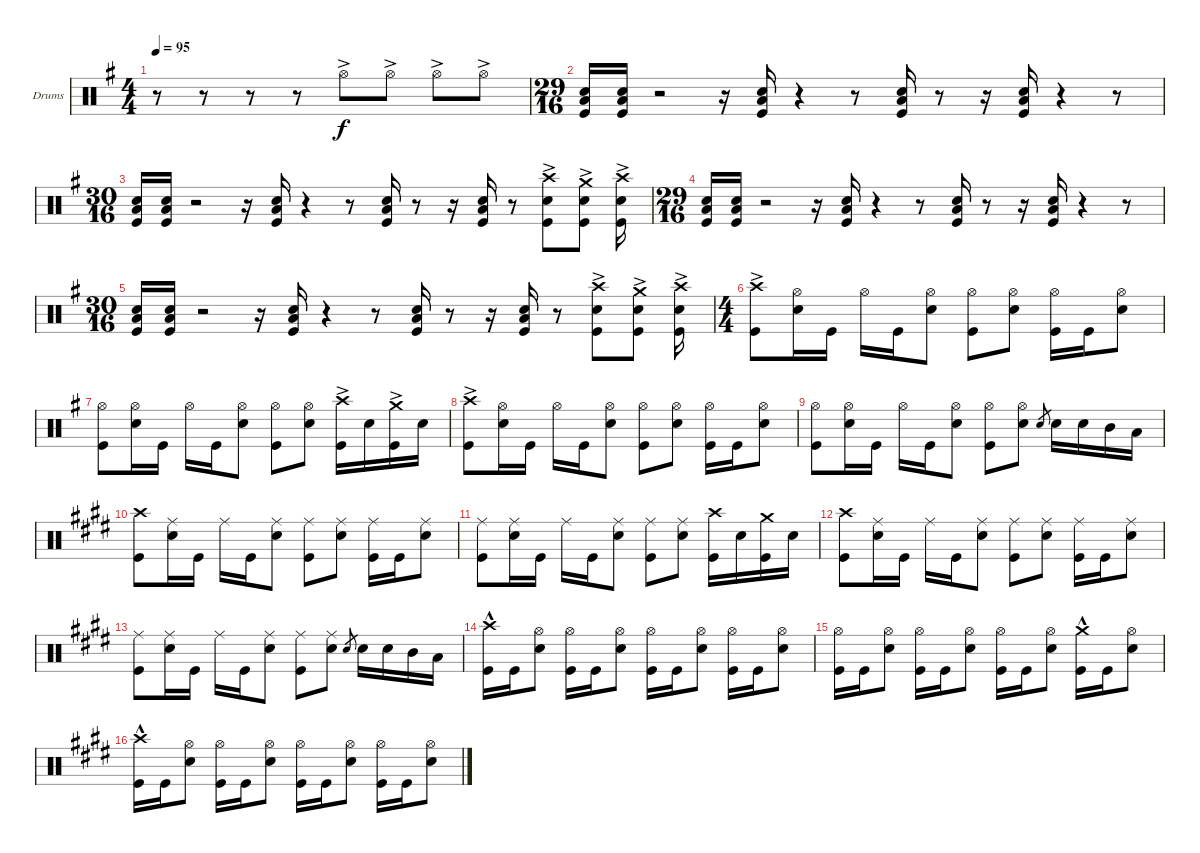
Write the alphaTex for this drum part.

\bracketExtendMode groupsimilarinstruments
\firstSystemTrackNameOrientation horizontal
\otherSystemsTrackNameOrientation horizontal
\track ("Drumkit" "Drums") {instrument percussion}
\staff {score}
\articulation defaults
\ts (4 4)
\tempo 95
\clef neutral
\ks eminor
r.8{dy f} r.8 r.8 r.8 "Hi-Hat (open)"{ac}.8 "Hi-Hat (open)"{ac}.8 "Hi-Hat (open)"{ac}.8 "Hi-Hat (open)"{ac}.8 |
\ts (29 16)
("Kick (hit)" "Low Tom (hit)" "Snare (hit) 2").16 ("Kick (hit)" "Low Tom (hit)" "Snare (hit) 2").16 r.2 r.16 ("Kick (hit)" "Low Tom (hit)" "Snare (hit) 2").16 r.4 r.8 ("Kick (hit)" "Low Tom (hit)" "Snare (hit) 2").16 r.8 r.16 ("Kick (hit)" "Low Tom (hit)" "Snare (hit) 2").16 r.4 r.8 |
\ts (30 16)
("Kick (hit)" "Low Tom (hit)" "Snare (hit) 2").16 ("Kick (hit)" "Low Tom (hit)" "Snare (hit) 2").16 r.2 r.16 ("Kick (hit)" "Low Tom (hit)" "Snare (hit) 2").16 r.4 r.8 ("Kick (hit)" "Low Tom (hit)" "Snare (hit) 2").16 r.8 r.16 ("Kick (hit)" "Low Tom (hit)" "Snare (hit) 2").16 r.8 ("Kick (hit)" "Snare (hit) 2" "Crash high (hit)"{ac}).8 ("Snare (hit) 2" "Kick (hit)" "Crash medium (hit)"{ac}).8 ("Crash high (hit)"{ac} "Snare (hit) 2" "Kick (hit)").16 |
\ts (29 16)
("Kick (hit)" "Low Tom (hit)" "Snare (hit) 2").16 ("Kick (hit)" "Low Tom (hit)" "Snare (hit) 2").16 r.2 r.16 ("Kick (hit)" "Low Tom (hit)" "Snare (hit) 2").16 r.4 r.8 ("Kick (hit)" "Low Tom (hit)" "Snare (hit) 2").16 r.8 r.16 ("Kick (hit)" "Low Tom (hit)" "Snare (hit) 2").16 r.4 r.8 |
\ts (30 16)
("Kick (hit)" "Low Tom (hit)" "Snare (hit) 2").16 ("Kick (hit)" "Low Tom (hit)" "Snare (hit) 2").16 r.2 r.16 ("Kick (hit)" "Low Tom (hit)" "Snare (hit) 2").16 r.4 r.8 ("Kick (hit)" "Low Tom (hit)" "Snare (hit) 2").16 r.8 r.16 ("Kick (hit)" "Low Tom (hit)" "Snare (hit) 2").16 r.8 ("Kick (hit)" "Snare (hit) 2" "Crash high (hit)"{ac}).8 ("Snare (hit) 2" "Kick (hit)" "Crash medium (hit)"{ac}).8 ("Crash high (hit)"{ac} "Snare (hit) 2" "Kick (hit)").16 |
\ts (4 4)
("Crash high (hit)"{ac} "Kick (hit)").8 ("Snare (hit) 2" "Hi-Hat (open)").16 "Kick (hit)".16 "Hi-Hat (open)".16 "Kick (hit)".16 ("Snare (hit) 2" "Hi-Hat (open)").8 ("Kick (hit)" "Hi-Hat (open)").8 ("Snare (hit) 2" "Hi-Hat (open)").8 ("Kick (hit)" "Hi-Hat (open)").16 "Kick (hit)".16 ("Snare (hit) 2" "Hi-Hat (open)").8 |
("Kick (hit)" "Hi-Hat (open)").8 ("Snare (hit) 2" "Hi-Hat (open)").16 "Kick (hit)".16 "Hi-Hat (open)".16 "Kick (hit)".16 ("Snare (hit) 2" "Hi-Hat (open)").8 ("Kick (hit)" "Hi-Hat (open)").8 ("Snare (hit) 2" "Hi-Hat (open)").8 ("Crash high (hit)"{ac} "Kick (hit)").16 "Snare (hit) 2".16 ("Crash medium (hit)"{ac} "Kick (hit)").16 "Snare (hit) 2".16 |
("Crash high (hit)"{ac} "Kick (hit)").8 ("Snare (hit) 2" "Hi-Hat (open)").16 "Kick (hit)".16 "Hi-Hat (open)".16 "Kick (hit)".16 ("Snare (hit) 2" "Hi-Hat (open)").8 ("Kick (hit)" "Hi-Hat (open)").8 ("Snare (hit) 2" "Hi-Hat (open)").8 ("Kick (hit)" "Hi-Hat (open)").16 "Kick (hit)".16 ("Snare (hit) 2" "Hi-Hat (open)").8 |
("Kick (hit)" "Hi-Hat (open)").8 ("Snare (hit) 2" "Hi-Hat (open)").16 "Kick (hit)".16 "Hi-Hat (open)".16 "Kick (hit)".16 ("Snare (hit) 2" "Hi-Hat (open)").8 ("Kick (hit)" "Hi-Hat (open)").8 ("Snare (hit) 2" "Hi-Hat (open)").8 "Snare (hit) 2".8{gr} "Snare (hit) 2".16 "Snare (hit) 2".16 "Mid Tom (hit)".16 "Low Tom (hit)".16 |
\ks c#minor
("Crash high (hit)" "Kick (hit)").8 ("Snare (hit) 2" "Ride (middle)").16 "Kick (hit)".16 "Ride (middle)".16 "Kick (hit)".16 ("Snare (hit) 2" "Ride (middle)").8 ("Kick (hit)" "Ride (middle)").8 ("Snare (hit) 2" "Ride (middle)").8 ("Kick (hit)" "Ride (middle)").16 "Kick (hit)".16 ("Snare (hit) 2" "Ride (middle)").8 |
("Kick (hit)" "Ride (middle)").8 ("Snare (hit) 2" "Ride (middle)").16 "Kick (hit)".16 "Ride (middle)".16 "Kick (hit)".16 ("Snare (hit) 2" "Ride (middle)").8 ("Kick (hit)" "Ride (middle)").8 ("Snare (hit) 2" "Ride (middle)").8 ("Crash high (hit)" "Kick (hit)").16 "Snare (hit) 2".16 ("Crash medium (hit)" "Kick (hit)").16 "Snare (hit) 2".16 |
("Crash high (hit)" "Kick (hit)").8 ("Snare (hit) 2" "Ride (middle)").16 "Kick (hit)".16 "Ride (middle)".16 "Kick (hit)".16 ("Snare (hit) 2" "Ride (middle)").8 ("Kick (hit)" "Ride (middle)").8 ("Snare (hit) 2" "Ride (middle)").8 ("Kick (hit)" "Ride (middle)").16 "Kick (hit)".16 ("Snare (hit) 2" "Ride (middle)").8 |
("Kick (hit)" "Ride (middle)").8 ("Snare (hit) 2" "Ride (middle)").16 "Kick (hit)".16 "Ride (middle)".16 "Kick (hit)".16 ("Snare (hit) 2" "Ride (middle)").8 ("Kick (hit)" "Ride (middle)").8 ("Snare (hit) 2" "Ride (middle)").8 "Snare (hit) 2".8{gr} "Snare (hit) 2".16 "Snare (hit) 2".16 "Mid Tom (hit)".16 "Low Tom (hit)".16 |
("Kick (hit)" "Crash high (hit)"{hac}).16 "Kick (hit)".16 ("Snare (hit) 2" "Hi-Hat (open)").8 ("Kick (hit)" "Hi-Hat (open)").16 "Kick (hit)".16 ("Snare (hit) 2" "Hi-Hat (open)").8 ("Kick (hit)" "Hi-Hat (open)").16 "Kick (hit)".16 ("Snare (hit) 2" "Hi-Hat (open)").8 ("Kick (hit)" "Hi-Hat (open)").16 "Kick (hit)".16 ("Snare (hit) 2" "Hi-Hat (open)").8 |
("Kick (hit)" "Hi-Hat (open)").16 "Kick (hit)".16 ("Snare (hit) 2" "Hi-Hat (open)").8 ("Kick (hit)" "Hi-Hat (open)").16 "Kick (hit)".16 ("Snare (hit) 2" "Hi-Hat (open)").8 ("Kick (hit)" "Hi-Hat (open)").16 "Kick (hit)".16 ("Snare (hit) 2" "Hi-Hat (open)").8 ("Kick (hit)" "Crash medium (hit)"{hac}).16 "Kick (hit)".16 ("Snare (hit) 2" "Hi-Hat (open)").8 |
("Kick (hit)" "Crash high (hit)"{hac}).16 "Kick (hit)".16 ("Snare (hit) 2" "Hi-Hat (open)").8 ("Kick (hit)" "Hi-Hat (open)").16 "Kick (hit)".16 ("Snare (hit) 2" "Hi-Hat (open)").8 ("Kick (hit)" "Hi-Hat (open)").16 "Kick (hit)".16 ("Snare (hit) 2" "Hi-Hat (open)").8 ("Kick (hit)" "Hi-Hat (open)").16 "Kick (hit)".16 ("Snare (hit) 2" "Hi-Hat (open)").8
